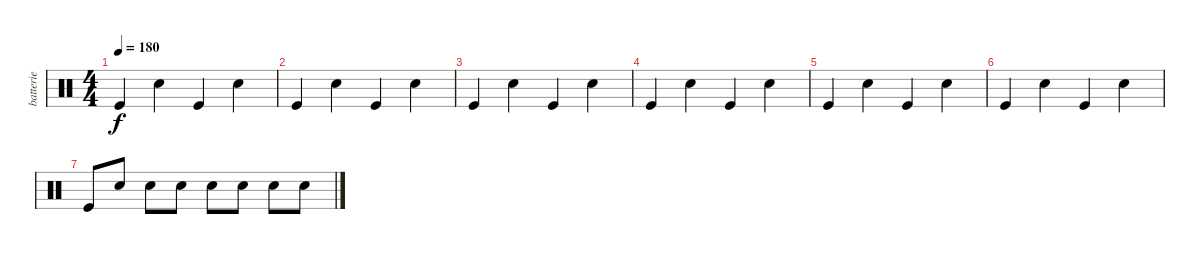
\track ("batterie" "batterie") {instrument percussion}
\staff {score}
\articulation defaults
\ts (4 4)
\tempo 180
\clef neutral
\ks c "Kick (hit)".4{dy f} "Snare (hit) 2".4 "Kick (hit)".4 "Snare (hit) 2".4
|
"Kick (hit)".4 "Snare (hit) 2".4 "Kick (hit)".4 "Snare (hit) 2".4 |
"Kick (hit)".4 "Snare (hit) 2".4 "Kick (hit)".4 "Snare (hit) 2".4 |
"Kick (hit)".4 "Snare (hit) 2".4 "Kick (hit)".4 "Snare (hit) 2".4 |
"Kick (hit)".4 "Snare (hit) 2".4 "Kick (hit)".4 "Snare (hit) 2".4 |
"Kick (hit)".4 "Snare (hit) 2".4 "Kick (hit)".4 "Snare (hit) 2".4 |
"Kick (hit)".8 "Snare (hit) 2".8 "Snare (hit) 2".8 "Snare (hit) 2".8 "Snare (hit) 2".8 "Snare (hit) 2".8 "Snare (hit) 2".8 "Snare (hit) 2".8
